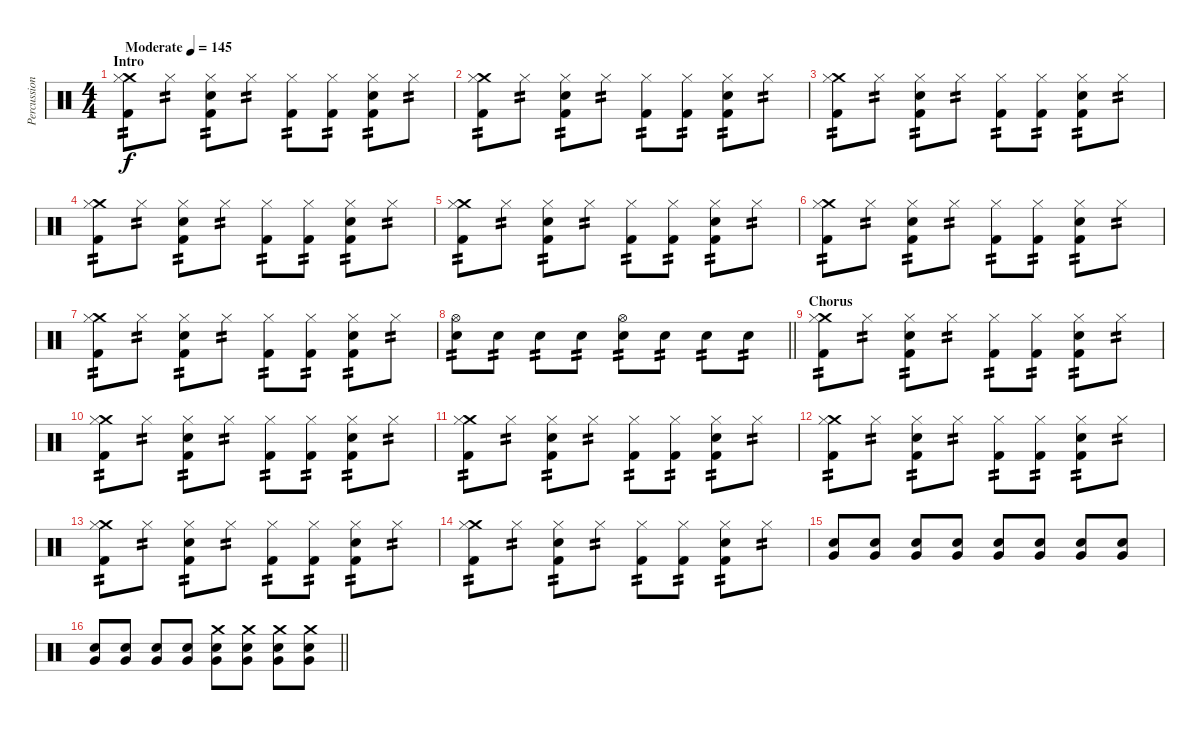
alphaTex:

\track ("Percussion" "Percussion") {instrument percussion}
\staff {score}
\articulation defaults
\ts (4 4)
\section ("" "Intro")
\tempo (145 "Moderate")
\clef neutral
\ks c
("Crash medium (hit)" "Hi-Hat (closed)" "Kick (hit) 2").8{tp 2 dy f} "Hi-Hat (closed)".8{tp 2} ("Hi-Hat (closed)" "Snare (hit) 2" "Kick (hit) 2").8{tp 2} "Hi-Hat (closed)".8{tp 2} ("Hi-Hat (closed)" "Kick (hit) 2").8{tp 2} ("Hi-Hat (closed)" "Kick (hit) 2").8{tp 2} ("Hi-Hat (closed)" "Snare (hit) 2" "Kick (hit) 2").8{tp 2} "Hi-Hat (closed)".8{tp 2} |
("Crash medium (hit)" "Hi-Hat (closed)" "Kick (hit) 2").8{tp 2} "Hi-Hat (closed)".8{tp 2} ("Hi-Hat (closed)" "Snare (hit) 2" "Kick (hit) 2").8{tp 2} "Hi-Hat (closed)".8{tp 2} ("Hi-Hat (closed)" "Kick (hit) 2").8{tp 2} ("Hi-Hat (closed)" "Kick (hit) 2").8{tp 2} ("Hi-Hat (closed)" "Snare (hit) 2" "Kick (hit) 2").8{tp 2} "Hi-Hat (closed)".8{tp 2} |
("Crash medium (hit)" "Hi-Hat (closed)" "Kick (hit) 2").8{tp 2} "Hi-Hat (closed)".8{tp 2} ("Hi-Hat (closed)" "Snare (hit) 2" "Kick (hit) 2").8{tp 2} "Hi-Hat (closed)".8{tp 2} ("Hi-Hat (closed)" "Kick (hit) 2").8{tp 2} ("Hi-Hat (closed)" "Kick (hit) 2").8{tp 2} ("Hi-Hat (closed)" "Snare (hit) 2" "Kick (hit) 2").8{tp 2} "Hi-Hat (closed)".8{tp 2} |
("Crash medium (hit)" "Hi-Hat (closed)" "Kick (hit) 2").8{tp 2} "Hi-Hat (closed)".8{tp 2} ("Hi-Hat (closed)" "Snare (hit) 2" "Kick (hit) 2").8{tp 2} "Hi-Hat (closed)".8{tp 2} ("Hi-Hat (closed)" "Kick (hit) 2").8{tp 2} ("Hi-Hat (closed)" "Kick (hit) 2").8{tp 2} ("Hi-Hat (closed)" "Snare (hit) 2" "Kick (hit) 2").8{tp 2} "Hi-Hat (closed)".8{tp 2} |
("Crash medium (hit)" "Hi-Hat (closed)" "Kick (hit) 2").8{tp 2} "Hi-Hat (closed)".8{tp 2} ("Hi-Hat (closed)" "Snare (hit) 2" "Kick (hit) 2").8{tp 2} "Hi-Hat (closed)".8{tp 2} ("Hi-Hat (closed)" "Kick (hit) 2").8{tp 2} ("Hi-Hat (closed)" "Kick (hit) 2").8{tp 2} ("Hi-Hat (closed)" "Snare (hit) 2" "Kick (hit) 2").8{tp 2} "Hi-Hat (closed)".8{tp 2} |
("Crash medium (hit)" "Hi-Hat (closed)" "Kick (hit) 2").8{tp 2} "Hi-Hat (closed)".8{tp 2} ("Hi-Hat (closed)" "Snare (hit) 2" "Kick (hit) 2").8{tp 2} "Hi-Hat (closed)".8{tp 2} ("Hi-Hat (closed)" "Kick (hit) 2").8{tp 2} ("Hi-Hat (closed)" "Kick (hit) 2").8{tp 2} ("Hi-Hat (closed)" "Snare (hit) 2" "Kick (hit) 2").8{tp 2} "Hi-Hat (closed)".8{tp 2} |
("Crash medium (hit)" "Hi-Hat (closed)" "Kick (hit) 2").8{tp 2} "Hi-Hat (closed)".8{tp 2} ("Hi-Hat (closed)" "Snare (hit) 2" "Kick (hit) 2").8{tp 2} "Hi-Hat (closed)".8{tp 2} ("Hi-Hat (closed)" "Kick (hit) 2").8{tp 2} ("Hi-Hat (closed)" "Kick (hit) 2").8{tp 2} ("Hi-Hat (closed)" "Snare (hit) 2" "Kick (hit) 2").8{tp 2} "Hi-Hat (closed)".8{tp 2} |
\barLineRight lightlight
("Hi-Hat (open)" "Snare (hit) 2").8{tp 2} "Snare (hit) 2".8{tp 2} "Snare (hit) 2".8{tp 2} "Snare (hit) 2".8{tp 2} ("Hi-Hat (open)" "Snare (hit) 2").8{tp 2} "Snare (hit) 2".8{tp 2} "Snare (hit) 2".8{tp 2} "Snare (hit) 2".8{tp 2} |
\section ("" "Chorus")
("Crash medium (hit)" "Hi-Hat (closed)" "Kick (hit) 2").8{tp 2} "Hi-Hat (closed)".8{tp 2} ("Hi-Hat (closed)" "Snare (hit) 2" "Kick (hit) 2").8{tp 2} "Hi-Hat (closed)".8{tp 2} ("Hi-Hat (closed)" "Kick (hit) 2").8{tp 2} ("Hi-Hat (closed)" "Kick (hit) 2").8{tp 2} ("Hi-Hat (closed)" "Snare (hit) 2" "Kick (hit) 2").8{tp 2} "Hi-Hat (closed)".8{tp 2} |
("Crash medium (hit)" "Hi-Hat (closed)" "Kick (hit) 2").8{tp 2} "Hi-Hat (closed)".8{tp 2} ("Hi-Hat (closed)" "Snare (hit) 2" "Kick (hit) 2").8{tp 2} "Hi-Hat (closed)".8{tp 2} ("Hi-Hat (closed)" "Kick (hit) 2").8{tp 2} ("Hi-Hat (closed)" "Kick (hit) 2").8{tp 2} ("Hi-Hat (closed)" "Snare (hit) 2" "Kick (hit) 2").8{tp 2} "Hi-Hat (closed)".8{tp 2} |
("Crash medium (hit)" "Hi-Hat (closed)" "Kick (hit) 2").8{tp 2} "Hi-Hat (closed)".8{tp 2} ("Hi-Hat (closed)" "Snare (hit) 2" "Kick (hit) 2").8{tp 2} "Hi-Hat (closed)".8{tp 2} ("Hi-Hat (closed)" "Kick (hit) 2").8{tp 2} ("Hi-Hat (closed)" "Kick (hit) 2").8{tp 2} ("Hi-Hat (closed)" "Snare (hit) 2" "Kick (hit) 2").8{tp 2} "Hi-Hat (closed)".8{tp 2} |
("Crash medium (hit)" "Hi-Hat (closed)" "Kick (hit) 2").8{tp 2} "Hi-Hat (closed)".8{tp 2} ("Hi-Hat (closed)" "Snare (hit) 2" "Kick (hit) 2").8{tp 2} "Hi-Hat (closed)".8{tp 2} ("Hi-Hat (closed)" "Kick (hit) 2").8{tp 2} ("Hi-Hat (closed)" "Kick (hit) 2").8{tp 2} ("Hi-Hat (closed)" "Snare (hit) 2" "Kick (hit) 2").8{tp 2} "Hi-Hat (closed)".8{tp 2} |
("Crash medium (hit)" "Hi-Hat (closed)" "Kick (hit) 2").8{tp 2} "Hi-Hat (closed)".8{tp 2} ("Hi-Hat (closed)" "Snare (hit) 2" "Kick (hit) 2").8{tp 2} "Hi-Hat (closed)".8{tp 2} ("Hi-Hat (closed)" "Kick (hit) 2").8{tp 2} ("Hi-Hat (closed)" "Kick (hit) 2").8{tp 2} ("Hi-Hat (closed)" "Snare (hit) 2" "Kick (hit) 2").8{tp 2} "Hi-Hat (closed)".8{tp 2} |
("Crash medium (hit)" "Hi-Hat (closed)" "Kick (hit) 2").8{tp 2} "Hi-Hat (closed)".8{tp 2} ("Hi-Hat (closed)" "Snare (hit) 2" "Kick (hit) 2").8{tp 2} "Hi-Hat (closed)".8{tp 2} ("Hi-Hat (closed)" "Kick (hit) 2").8{tp 2} ("Hi-Hat (closed)" "Kick (hit) 2").8{tp 2} ("Hi-Hat (closed)" "Snare (hit) 2" "Kick (hit) 2").8{tp 2} "Hi-Hat (closed)".8{tp 2} |
("Very Low Tom (hit)" "Snare (hit) 2").8 ("Very Low Tom (hit)" "Snare (hit) 2").8 ("Very Low Tom (hit)" "Snare (hit) 2").8 ("Very Low Tom (hit)" "Snare (hit) 2").8 ("Very Low Tom (hit)" "Snare (hit) 2").8 ("Very Low Tom (hit)" "Snare (hit) 2").8 ("Very Low Tom (hit)" "Snare (hit) 2").8 ("Very Low Tom (hit)" "Snare (hit) 2").8 |
\barLineRight lightlight
("Very Low Tom (hit)" "Snare (hit) 2").8 ("Very Low Tom (hit)" "Snare (hit) 2").8 ("Very Low Tom (hit)" "Snare (hit) 2").8 ("Very Low Tom (hit)" "Snare (hit) 2").8 ("Crash medium (hit)" "Very Low Tom (hit)" "Snare (hit) 2").8 ("Crash medium (hit)" "Very Low Tom (hit)" "Snare (hit) 2").8 ("Crash medium (hit)" "Very Low Tom (hit)" "Snare (hit) 2").8 ("Crash medium (hit)" "Very Low Tom (hit)" "Snare (hit) 2").8
